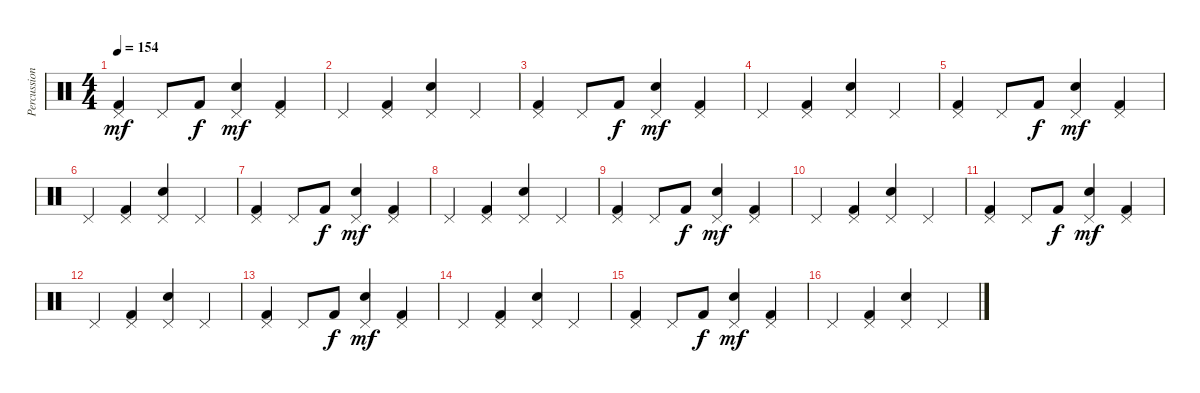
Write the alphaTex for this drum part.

\track ("Percussion" "Percussion") {instrument percussion}
\staff {score}
\articulation defaults
\ts (4 4)
\tempo 154
\clef neutral
\ks c
("Kick (hit) 2" "Pedal Hi-Hat (hit)").4{dy mf} "Pedal Hi-Hat (hit)".8 "Kick (hit) 2".8{dy f} ("Snare (hit) 2" "Pedal Hi-Hat (hit)").4{dy mf} ("Kick (hit) 2" "Pedal Hi-Hat (hit)").4 |
"Pedal Hi-Hat (hit)".4 ("Kick (hit) 2" "Pedal Hi-Hat (hit)").4 ("Snare (hit) 2" "Pedal Hi-Hat (hit)").4 "Pedal Hi-Hat (hit)".4 |
("Kick (hit) 2" "Pedal Hi-Hat (hit)").4 "Pedal Hi-Hat (hit)".8 "Kick (hit) 2".8{dy f} ("Snare (hit) 2" "Pedal Hi-Hat (hit)").4{dy mf} ("Kick (hit) 2" "Pedal Hi-Hat (hit)").4 |
"Pedal Hi-Hat (hit)".4 ("Kick (hit) 2" "Pedal Hi-Hat (hit)").4 ("Snare (hit) 2" "Pedal Hi-Hat (hit)").4 "Pedal Hi-Hat (hit)".4 |
("Kick (hit) 2" "Pedal Hi-Hat (hit)").4 "Pedal Hi-Hat (hit)".8 "Kick (hit) 2".8{dy f} ("Snare (hit) 2" "Pedal Hi-Hat (hit)").4{dy mf} ("Kick (hit) 2" "Pedal Hi-Hat (hit)").4 |
"Pedal Hi-Hat (hit)".4 ("Kick (hit) 2" "Pedal Hi-Hat (hit)").4 ("Snare (hit) 2" "Pedal Hi-Hat (hit)").4 "Pedal Hi-Hat (hit)".4 |
("Kick (hit) 2" "Pedal Hi-Hat (hit)").4 "Pedal Hi-Hat (hit)".8 "Kick (hit) 2".8{dy f} ("Snare (hit) 2" "Pedal Hi-Hat (hit)").4{dy mf} ("Kick (hit) 2" "Pedal Hi-Hat (hit)").4 |
"Pedal Hi-Hat (hit)".4 ("Kick (hit) 2" "Pedal Hi-Hat (hit)").4 ("Snare (hit) 2" "Pedal Hi-Hat (hit)").4 "Pedal Hi-Hat (hit)".4 |
("Kick (hit) 2" "Pedal Hi-Hat (hit)").4 "Pedal Hi-Hat (hit)".8 "Kick (hit) 2".8{dy f} ("Snare (hit) 2" "Pedal Hi-Hat (hit)").4{dy mf} ("Kick (hit) 2" "Pedal Hi-Hat (hit)").4 |
"Pedal Hi-Hat (hit)".4 ("Kick (hit) 2" "Pedal Hi-Hat (hit)").4 ("Snare (hit) 2" "Pedal Hi-Hat (hit)").4 "Pedal Hi-Hat (hit)".4 |
("Kick (hit) 2" "Pedal Hi-Hat (hit)").4 "Pedal Hi-Hat (hit)".8 "Kick (hit) 2".8{dy f} ("Snare (hit) 2" "Pedal Hi-Hat (hit)").4{dy mf} ("Kick (hit) 2" "Pedal Hi-Hat (hit)").4 |
"Pedal Hi-Hat (hit)".4 ("Kick (hit) 2" "Pedal Hi-Hat (hit)").4 ("Snare (hit) 2" "Pedal Hi-Hat (hit)").4 "Pedal Hi-Hat (hit)".4 |
("Kick (hit) 2" "Pedal Hi-Hat (hit)").4 "Pedal Hi-Hat (hit)".8 "Kick (hit) 2".8{dy f} ("Snare (hit) 2" "Pedal Hi-Hat (hit)").4{dy mf} ("Kick (hit) 2" "Pedal Hi-Hat (hit)").4 |
"Pedal Hi-Hat (hit)".4 ("Kick (hit) 2" "Pedal Hi-Hat (hit)").4 ("Snare (hit) 2" "Pedal Hi-Hat (hit)").4 "Pedal Hi-Hat (hit)".4 |
("Kick (hit) 2" "Pedal Hi-Hat (hit)").4 "Pedal Hi-Hat (hit)".8 "Kick (hit) 2".8{dy f} ("Snare (hit) 2" "Pedal Hi-Hat (hit)").4{dy mf} ("Kick (hit) 2" "Pedal Hi-Hat (hit)").4 |
"Pedal Hi-Hat (hit)".4 ("Kick (hit) 2" "Pedal Hi-Hat (hit)").4 ("Snare (hit) 2" "Pedal Hi-Hat (hit)").4 "Pedal Hi-Hat (hit)".4
